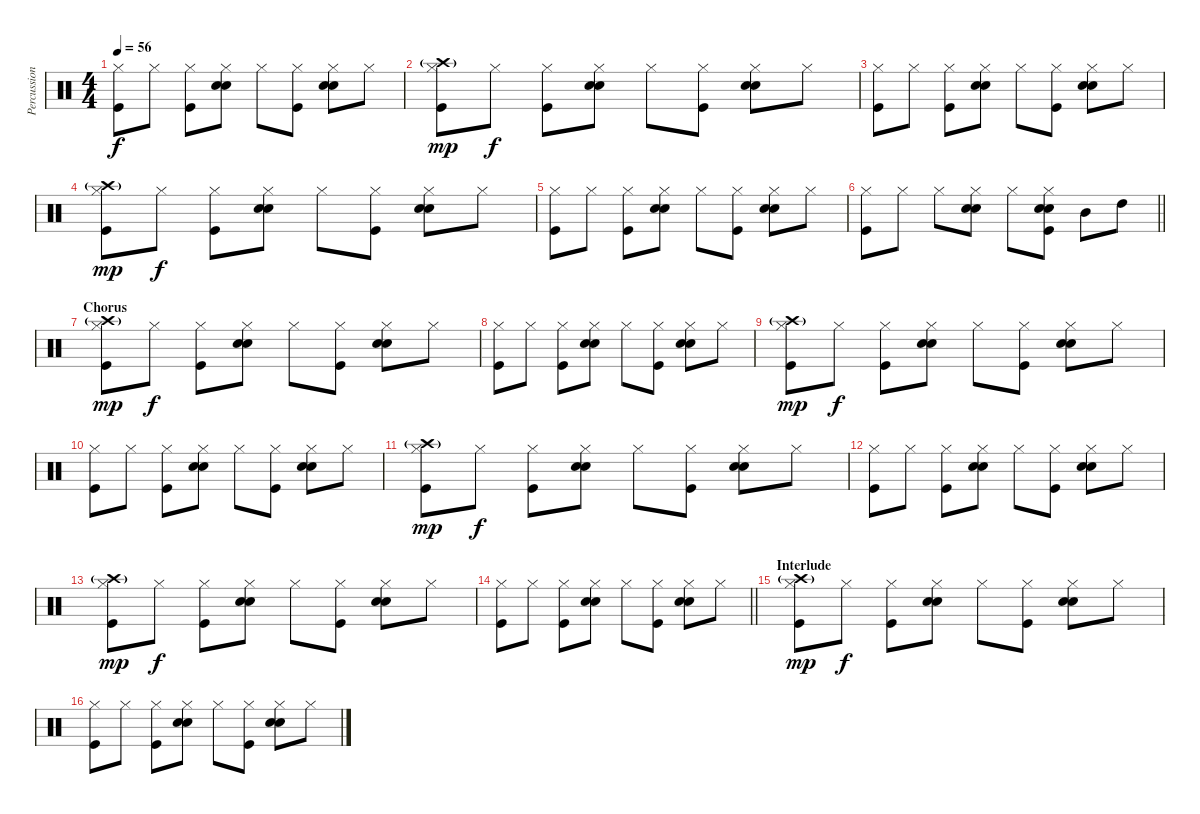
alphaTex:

\track ("Percussion" "Percussion") {instrument percussion}
\staff {score}
\articulation defaults
\ts (4 4)
\tempo 56
\clef neutral
\ks c
("Hi-Hat (closed)" "Kick (hit)").8{dy f} "Hi-Hat (closed)".8 ("Hi-Hat (closed)" "Kick (hit)").8 ("Hi-Hat (closed)" "Snare (hit) 2" "Snare (hit) 2").8 "Hi-Hat (closed)".8 ("Hi-Hat (closed)" "Kick (hit)").8 ("Hi-Hat (closed)" "Snare (hit) 2" "Snare (hit) 2").8 "Hi-Hat (closed)".8 |
("Hi-Hat (closed)" "Crash high (hit)"{g} "Kick (hit)").8{dy mp} "Hi-Hat (closed)".8{dy f} ("Hi-Hat (closed)" "Kick (hit)").8 ("Hi-Hat (closed)" "Snare (hit) 2" "Snare (hit) 2").8 "Hi-Hat (closed)".8 ("Hi-Hat (closed)" "Kick (hit)").8 ("Hi-Hat (closed)" "Snare (hit) 2" "Snare (hit) 2").8 "Hi-Hat (closed)".8 |
("Hi-Hat (closed)" "Kick (hit)").8 "Hi-Hat (closed)".8 ("Hi-Hat (closed)" "Kick (hit)").8 ("Hi-Hat (closed)" "Snare (hit) 2" "Snare (hit) 2").8 "Hi-Hat (closed)".8 ("Hi-Hat (closed)" "Kick (hit)").8 ("Hi-Hat (closed)" "Snare (hit) 2" "Snare (hit) 2").8 "Hi-Hat (closed)".8 |
("Hi-Hat (closed)" "Crash high (hit)"{g} "Kick (hit)").8{dy mp} "Hi-Hat (closed)".8{dy f} ("Hi-Hat (closed)" "Kick (hit)").8 ("Hi-Hat (closed)" "Snare (hit) 2" "Snare (hit) 2").8 "Hi-Hat (closed)".8 ("Hi-Hat (closed)" "Kick (hit)").8 ("Hi-Hat (closed)" "Snare (hit) 2" "Snare (hit) 2").8 "Hi-Hat (closed)".8 |
("Hi-Hat (closed)" "Kick (hit)").8 "Hi-Hat (closed)".8 ("Hi-Hat (closed)" "Kick (hit)").8 ("Hi-Hat (closed)" "Snare (hit) 2" "Snare (hit) 2").8 "Hi-Hat (closed)".8 ("Hi-Hat (closed)" "Kick (hit)").8 ("Hi-Hat (closed)" "Snare (hit) 2" "Snare (hit) 2").8 "Hi-Hat (closed)".8 |
\barLineRight lightlight
("Hi-Hat (closed)" "Kick (hit)").8 "Hi-Hat (closed)".8 "Hi-Hat (closed)".8 ("Hi-Hat (closed)" "Snare (hit) 2" "Snare (hit) 2").8 "Hi-Hat (closed)".8 ("Hi-Hat (closed)" "Snare (hit) 2" "Snare (hit) 2" "Kick (hit)").8 "Mid Tom (hit)".8 "High Tom (hit)".8 |
\section ("" "Chorus")
("Hi-Hat (closed)" "Crash high (hit)"{g} "Kick (hit)").8{dy mp} "Hi-Hat (closed)".8{dy f} ("Hi-Hat (closed)" "Kick (hit)").8 ("Hi-Hat (closed)" "Snare (hit) 2" "Snare (hit) 2").8 "Hi-Hat (closed)".8 ("Hi-Hat (closed)" "Kick (hit)").8 ("Hi-Hat (closed)" "Snare (hit) 2" "Snare (hit) 2").8 "Hi-Hat (closed)".8 |
("Hi-Hat (closed)" "Kick (hit)").8 "Hi-Hat (closed)".8 ("Hi-Hat (closed)" "Kick (hit)").8 ("Hi-Hat (closed)" "Snare (hit) 2" "Snare (hit) 2").8 "Hi-Hat (closed)".8 ("Hi-Hat (closed)" "Kick (hit)").8 ("Hi-Hat (closed)" "Snare (hit) 2" "Snare (hit) 2").8 "Hi-Hat (closed)".8 |
("Hi-Hat (closed)" "Crash high (hit)"{g} "Kick (hit)").8{dy mp} "Hi-Hat (closed)".8{dy f} ("Hi-Hat (closed)" "Kick (hit)").8 ("Hi-Hat (closed)" "Snare (hit) 2" "Snare (hit) 2").8 "Hi-Hat (closed)".8 ("Hi-Hat (closed)" "Kick (hit)").8 ("Hi-Hat (closed)" "Snare (hit) 2" "Snare (hit) 2").8 "Hi-Hat (closed)".8 |
("Hi-Hat (closed)" "Kick (hit)").8 "Hi-Hat (closed)".8 ("Hi-Hat (closed)" "Kick (hit)").8 ("Hi-Hat (closed)" "Snare (hit) 2" "Snare (hit) 2").8 "Hi-Hat (closed)".8 ("Hi-Hat (closed)" "Kick (hit)").8 ("Hi-Hat (closed)" "Snare (hit) 2" "Snare (hit) 2").8 "Hi-Hat (closed)".8 |
("Hi-Hat (closed)" "Crash high (hit)"{g} "Kick (hit)").8{dy mp} "Hi-Hat (closed)".8{dy f} ("Hi-Hat (closed)" "Kick (hit)").8 ("Hi-Hat (closed)" "Snare (hit) 2" "Snare (hit) 2").8 "Hi-Hat (closed)".8 ("Hi-Hat (closed)" "Kick (hit)").8 ("Hi-Hat (closed)" "Snare (hit) 2" "Snare (hit) 2").8 "Hi-Hat (closed)".8 |
("Hi-Hat (closed)" "Kick (hit)").8 "Hi-Hat (closed)".8 ("Hi-Hat (closed)" "Kick (hit)").8 ("Hi-Hat (closed)" "Snare (hit) 2" "Snare (hit) 2").8 "Hi-Hat (closed)".8 ("Hi-Hat (closed)" "Kick (hit)").8 ("Hi-Hat (closed)" "Snare (hit) 2" "Snare (hit) 2").8 "Hi-Hat (closed)".8 |
("Hi-Hat (closed)" "Crash high (hit)"{g} "Kick (hit)").8{dy mp} "Hi-Hat (closed)".8{dy f} ("Hi-Hat (closed)" "Kick (hit)").8 ("Hi-Hat (closed)" "Snare (hit) 2" "Snare (hit) 2").8 "Hi-Hat (closed)".8 ("Hi-Hat (closed)" "Kick (hit)").8 ("Hi-Hat (closed)" "Snare (hit) 2" "Snare (hit) 2").8 "Hi-Hat (closed)".8 |
\barLineRight lightlight
("Hi-Hat (closed)" "Kick (hit)").8 "Hi-Hat (closed)".8 ("Hi-Hat (closed)" "Kick (hit)").8 ("Hi-Hat (closed)" "Snare (hit) 2" "Snare (hit) 2").8 "Hi-Hat (closed)".8 ("Hi-Hat (closed)" "Kick (hit)").8 ("Hi-Hat (closed)" "Snare (hit) 2" "Snare (hit) 2").8 "Hi-Hat (closed)".8 |
\section ("" "Interlude")
("Hi-Hat (closed)" "Crash high (hit)"{g} "Kick (hit)").8{dy mp} "Hi-Hat (closed)".8{dy f} ("Hi-Hat (closed)" "Kick (hit)").8 ("Hi-Hat (closed)" "Snare (hit) 2" "Snare (hit) 2").8 "Hi-Hat (closed)".8 ("Hi-Hat (closed)" "Kick (hit)").8 ("Hi-Hat (closed)" "Snare (hit) 2" "Snare (hit) 2").8 "Hi-Hat (closed)".8 |
("Hi-Hat (closed)" "Kick (hit)").8 "Hi-Hat (closed)".8 ("Hi-Hat (closed)" "Kick (hit)").8 ("Hi-Hat (closed)" "Snare (hit) 2" "Snare (hit) 2").8 "Hi-Hat (closed)".8 ("Hi-Hat (closed)" "Kick (hit)").8 ("Hi-Hat (closed)" "Snare (hit) 2" "Snare (hit) 2").8 "Hi-Hat (closed)".8
